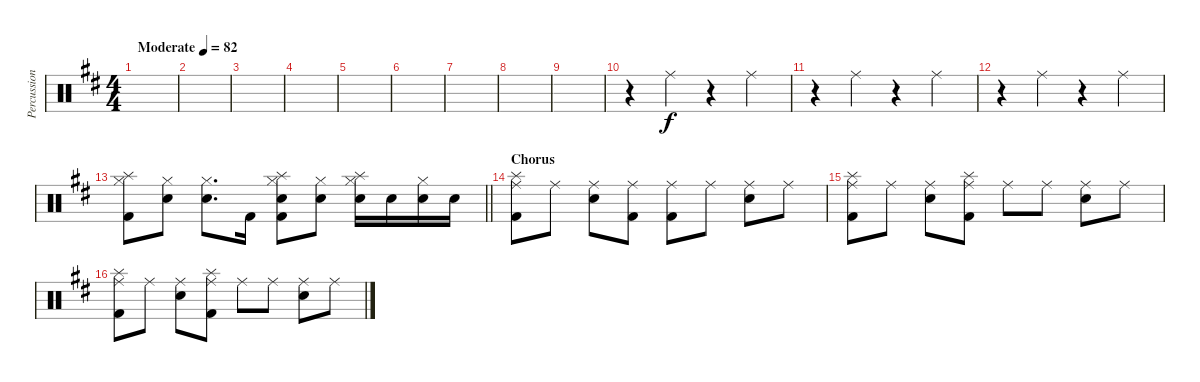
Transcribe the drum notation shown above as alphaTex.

\track ("Percussion" "Percussion") {instrument percussion}
\staff {score}
\articulation defaults
\ts (4 4)
\tempo (82 "Moderate")
\clef neutral
\ks d
|
|
|
|
|
|
|
|
|
r.4 "Ride (middle)".4 r.4 "Ride (middle)".4 |
r.4 "Ride (middle)".4 r.4 "Ride (middle)".4 |
r.4 "Ride (middle)".4 r.4 "Ride (middle)".4 |
\barLineRight lightlight
("Splash (hit)" "Hi-Hat (closed)" "Kick (hit) 2").8 ("Hi-Hat (closed)" "Snare (hit) 2").8 ("Hi-Hat (closed)" "Snare (hit) 2").8{d} "Kick (hit) 2".16 ("Splash (hit)" "Hi-Hat (closed)" "Snare (hit) 2" "Kick (hit) 2").8 ("Hi-Hat (closed)" "Snare (hit) 2").8 ("Splash (hit)" "Hi-Hat (closed)" "Snare (hit) 2").16 "Snare (hit) 2".16 ("Hi-Hat (closed)" "Snare (hit) 2").16 "Snare (hit) 2".16 |
\section ("" "Chorus")
("Splash (hit)" "Ride (middle)" "Kick (hit) 2").8 "Ride (middle)".8 ("Ride (middle)" "Snare (hit) 2").8 ("Ride (middle)" "Kick (hit) 2").8 ("Ride (middle)" "Kick (hit) 2").8 "Ride (middle)".8 ("Ride (middle)" "Snare (hit) 2").8 "Ride (middle)".8 |
("Splash (hit)" "Ride (middle)" "Kick (hit) 2").8 "Ride (middle)".8 ("Ride (middle)" "Snare (hit) 2").8 ("Splash (hit)" "Ride (middle)" "Kick (hit) 2").8 "Ride (middle)".8 "Ride (middle)".8 ("Ride (middle)" "Snare (hit) 2").8 "Ride (middle)".8 |
("Splash (hit)" "Ride (middle)" "Kick (hit) 2").8 "Ride (middle)".8 ("Ride (middle)" "Snare (hit) 2").8 ("Splash (hit)" "Ride (middle)" "Kick (hit) 2").8 "Ride (middle)".8 "Ride (middle)".8 ("Ride (middle)" "Snare (hit) 2").8 "Ride (middle)".8
